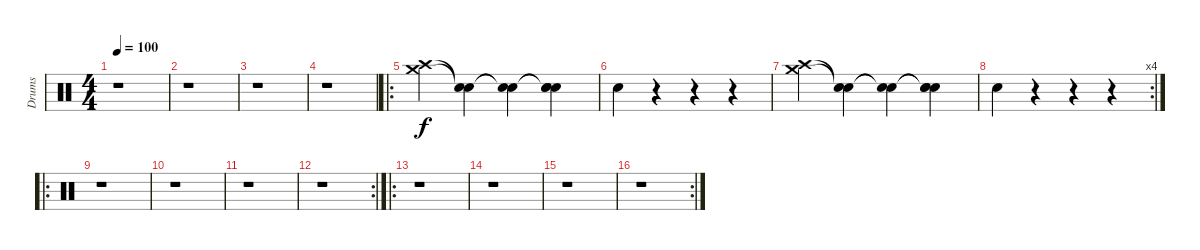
\track ("Drums" "Drums") {instrument percussion}
\staff {score}
\articulation defaults
\ts (4 4)
\tempo 100
\clef neutral
\ks c
r.1{dy f} |
r.1 |
r.1 |
r.1 |
\ro
("Crash high (hit)" "Crash medium (hit)").4 ("Snare (hit)"{t} "Snare (hit)"{t}).4 ("Snare (hit)"{t} "Snare (hit)"{t}).4 ("Snare (hit)"{t} "Snare (hit)"{t} "Metronome (bell)").4 |
"Metronome (bell)".4 r.4 r.4 r.4 |
("Crash high (hit)" "Crash medium (hit)").4 ("Snare (hit)"{t} "Snare (hit)"{t}).4 ("Snare (hit)"{t} "Snare (hit)"{t}).4 ("Snare (hit)"{t} "Snare (hit)"{t} "Metronome (bell)").4 |
\rc 4 "Metronome (bell)".4
r.4 r.4 r.4 |
\ro
r.1 |
r.1 |
r.1 |
\rc 2
r.1 |
\ro
r.1 |
r.1 |
r.1 |
\rc 2
r.1
